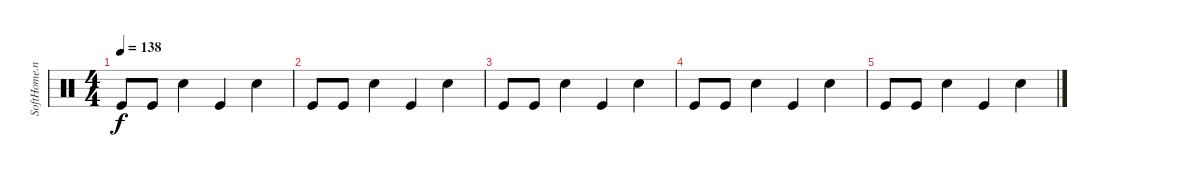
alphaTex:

\track ("SoftHome.net" "SoftHome.n") {instrument percussion}
\staff {score}
\articulation defaults
\ts (4 4)
\tempo 138
\clef neutral
\ks c "Kick (hit)".8{dy f volume 5} "Kick (hit)".8 "Snare (hit) 2".4 "Kick (hit)".4 "Snare (hit) 2".4
|
"Kick (hit)".8 "Kick (hit)".8 "Snare (hit) 2".4 "Kick (hit)".4 "Snare (hit) 2".4 |
"Kick (hit)".8{volume 3} "Kick (hit)".8 "Snare (hit) 2".4 "Kick (hit)".4 "Snare (hit) 2".4 |
"Kick (hit)".8{volume 2} "Kick (hit)".8 "Snare (hit) 2".4 "Kick (hit)".4 "Snare (hit) 2".4 |
"Kick (hit)".8 "Kick (hit)".8 "Snare (hit) 2".4 "Kick (hit)".4 "Snare (hit) 2".4
